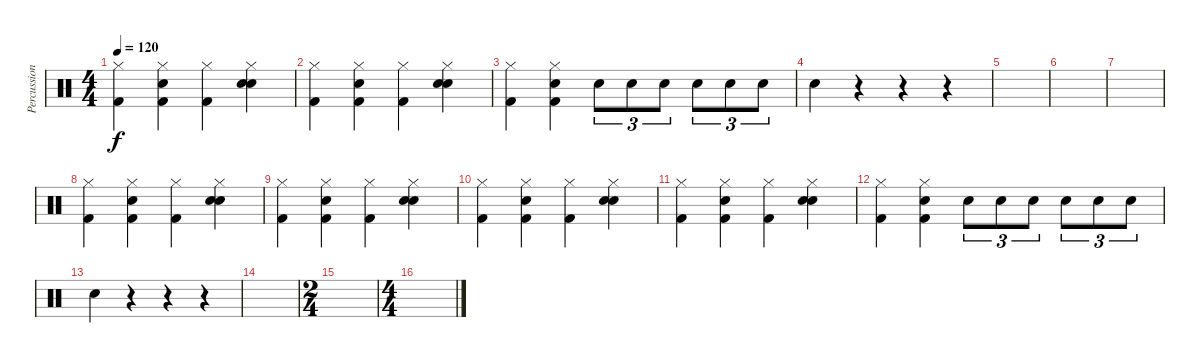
\track ("Percussion" "Percussion") {instrument percussion}
\staff {score}
\articulation defaults
\ts (4 4)
\tempo 120
\clef neutral
\ks c
("Hi-Hat (closed)" "Kick (hit) 2").4{dy f} ("Hi-Hat (closed)" "Snare (hit) 2" "Kick (hit) 2").4 ("Hi-Hat (closed)" "Kick (hit) 2").4 ("Hi-Hat (closed)" "Snare (hit) 2" "Snare (hit) 2").4 |
("Hi-Hat (closed)" "Kick (hit) 2").4 ("Hi-Hat (closed)" "Snare (hit) 2" "Kick (hit) 2").4 ("Hi-Hat (closed)" "Kick (hit) 2").4 ("Hi-Hat (closed)" "Snare (hit) 2" "Snare (hit) 2").4 |
("Hi-Hat (closed)" "Kick (hit) 2").4 ("Hi-Hat (closed)" "Snare (hit) 2" "Kick (hit) 2").4 "Snare (hit) 2".8{tu (3 2)} "Snare (hit) 2".8{tu (3 2)} "Snare (hit) 2".8{tu (3 2)} "Snare (hit) 2".8{tu (3 2)} "Snare (hit) 2".8{tu (3 2)} "Snare (hit) 2".8{tu (3 2)} |
"Snare (hit) 2".4 r.4 r.4 r.4 |
|
|
|
("Hi-Hat (closed)" "Kick (hit) 2").4 ("Hi-Hat (closed)" "Snare (hit) 2" "Kick (hit) 2").4 ("Hi-Hat (closed)" "Kick (hit) 2").4 ("Hi-Hat (closed)" "Snare (hit) 2" "Snare (hit) 2").4 |
("Hi-Hat (closed)" "Kick (hit) 2").4 ("Hi-Hat (closed)" "Snare (hit) 2" "Kick (hit) 2").4 ("Hi-Hat (closed)" "Kick (hit) 2").4 ("Hi-Hat (closed)" "Snare (hit) 2" "Snare (hit) 2").4 |
("Hi-Hat (closed)" "Kick (hit) 2").4 ("Hi-Hat (closed)" "Snare (hit) 2" "Kick (hit) 2").4 ("Hi-Hat (closed)" "Kick (hit) 2").4 ("Hi-Hat (closed)" "Snare (hit) 2" "Snare (hit) 2").4 |
("Hi-Hat (closed)" "Kick (hit) 2").4 ("Hi-Hat (closed)" "Snare (hit) 2" "Kick (hit) 2").4 ("Hi-Hat (closed)" "Kick (hit) 2").4 ("Hi-Hat (closed)" "Snare (hit) 2" "Snare (hit) 2").4 |
("Hi-Hat (closed)" "Kick (hit) 2").4 ("Hi-Hat (closed)" "Snare (hit) 2" "Kick (hit) 2").4 "Snare (hit) 2".8{tu (3 2)} "Snare (hit) 2".8{tu (3 2)} "Snare (hit) 2".8{tu (3 2)} "Snare (hit) 2".8{tu (3 2)} "Snare (hit) 2".8{tu (3 2)} "Snare (hit) 2".8{tu (3 2)} |
"Snare (hit) 2".4 r.4 r.4 r.4 |
|
\ts (2 4)
|
\ts (4 4)
